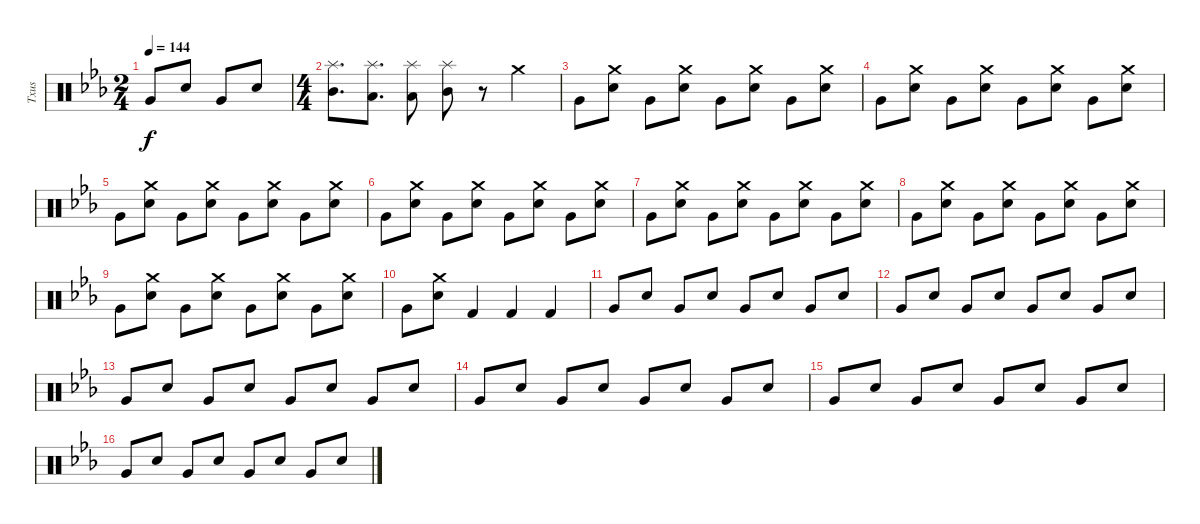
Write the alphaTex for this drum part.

\track ("Txus" "Txus") {instrument percussion}
\staff {score}
\articulation defaults
\ts (2 4)
\tempo 144
\clef neutral
\ks eb "Very Low Tom (hit)".8{dy f} "Electric Snare (hit)".8 "Very Low Tom (hit)".8 "Electric Snare (hit)".8
|
\ts (4 4)
("Splash (hit)" "Mid Tom (hit)").8{d} ("Splash (hit)" "Low Floor Tom (hit)").8{d} ("Splash (hit)" "Low Tom (hit)").8 ("Splash (hit)" "Mid Tom (hit)").8 r.8 "Crash medium (hit)".4 |
"Very Low Tom (hit)".8{volume 10} ("Electric Snare (hit)" "Crash medium (hit)").8 "Very Low Tom (hit)".8 ("Electric Snare (hit)" "Crash medium (hit)").8 "Very Low Tom (hit)".8 ("Electric Snare (hit)" "Crash medium (hit)").8 "Very Low Tom (hit)".8 ("Electric Snare (hit)" "Crash medium (hit)").8 |
"Very Low Tom (hit)".8 ("Electric Snare (hit)" "Crash medium (hit)").8 "Very Low Tom (hit)".8 ("Electric Snare (hit)" "Crash medium (hit)").8 "Very Low Tom (hit)".8 ("Electric Snare (hit)" "Crash medium (hit)").8 "Very Low Tom (hit)".8 ("Electric Snare (hit)" "Crash medium (hit)").8 |
"Very Low Tom (hit)".8 ("Electric Snare (hit)" "Crash medium (hit)").8 "Very Low Tom (hit)".8 ("Electric Snare (hit)" "Crash medium (hit)").8 "Very Low Tom (hit)".8 ("Electric Snare (hit)" "Crash medium (hit)").8 "Very Low Tom (hit)".8 ("Electric Snare (hit)" "Crash medium (hit)").8 |
"Very Low Tom (hit)".8 ("Electric Snare (hit)" "Crash medium (hit)").8 "Very Low Tom (hit)".8 ("Electric Snare (hit)" "Crash medium (hit)").8 "Very Low Tom (hit)".8 ("Electric Snare (hit)" "Crash medium (hit)").8 "Very Low Tom (hit)".8 ("Electric Snare (hit)" "Crash medium (hit)").8 |
"Very Low Tom (hit)".8 ("Electric Snare (hit)" "Crash medium (hit)").8 "Very Low Tom (hit)".8 ("Electric Snare (hit)" "Crash medium (hit)").8 "Very Low Tom (hit)".8 ("Electric Snare (hit)" "Crash medium (hit)").8 "Very Low Tom (hit)".8 ("Electric Snare (hit)" "Crash medium (hit)").8 |
"Very Low Tom (hit)".8 ("Electric Snare (hit)" "Crash medium (hit)").8 "Very Low Tom (hit)".8 ("Electric Snare (hit)" "Crash medium (hit)").8 "Very Low Tom (hit)".8 ("Electric Snare (hit)" "Crash medium (hit)").8 "Very Low Tom (hit)".8 ("Electric Snare (hit)" "Crash medium (hit)").8 |
"Very Low Tom (hit)".8 ("Electric Snare (hit)" "Crash medium (hit)").8 "Very Low Tom (hit)".8 ("Electric Snare (hit)" "Crash medium (hit)").8 "Very Low Tom (hit)".8 ("Electric Snare (hit)" "Crash medium (hit)").8 "Very Low Tom (hit)".8 ("Electric Snare (hit)" "Crash medium (hit)").8 |
"Very Low Tom (hit)".8{volume 13} ("Electric Snare (hit)" "Crash medium (hit)").8 "Kick (hit) 2".4 "Kick (hit) 2".4 "Kick (hit) 2".4 |
"Very Low Tom (hit)".8 "Electric Snare (hit)".8 "Very Low Tom (hit)".8 "Electric Snare (hit)".8 "Very Low Tom (hit)".8 "Electric Snare (hit)".8 "Very Low Tom (hit)".8 "Electric Snare (hit)".8 |
"Very Low Tom (hit)".8 "Electric Snare (hit)".8 "Very Low Tom (hit)".8 "Electric Snare (hit)".8 "Very Low Tom (hit)".8 "Electric Snare (hit)".8 "Very Low Tom (hit)".8 "Electric Snare (hit)".8 |
"Very Low Tom (hit)".8 "Electric Snare (hit)".8 "Very Low Tom (hit)".8 "Electric Snare (hit)".8 "Very Low Tom (hit)".8 "Electric Snare (hit)".8 "Very Low Tom (hit)".8 "Electric Snare (hit)".8 |
"Very Low Tom (hit)".8 "Electric Snare (hit)".8 "Very Low Tom (hit)".8 "Electric Snare (hit)".8 "Very Low Tom (hit)".8 "Electric Snare (hit)".8 "Very Low Tom (hit)".8 "Electric Snare (hit)".8 |
"Very Low Tom (hit)".8 "Electric Snare (hit)".8 "Very Low Tom (hit)".8 "Electric Snare (hit)".8 "Very Low Tom (hit)".8 "Electric Snare (hit)".8 "Very Low Tom (hit)".8 "Electric Snare (hit)".8 |
"Very Low Tom (hit)".8 "Electric Snare (hit)".8 "Very Low Tom (hit)".8 "Electric Snare (hit)".8 "Very Low Tom (hit)".8 "Electric Snare (hit)".8 "Very Low Tom (hit)".8 "Electric Snare (hit)".8
